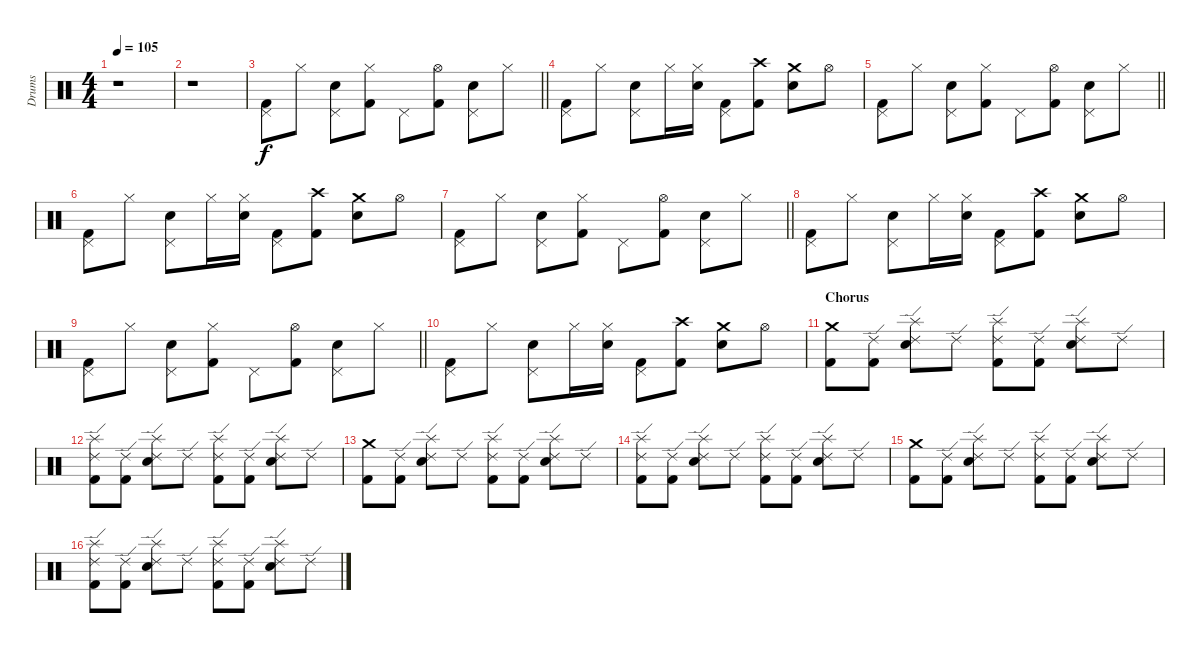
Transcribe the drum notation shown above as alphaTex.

\track ("Drums" "Drums") {instrument percussion}
\staff {score}
\articulation defaults
\ts (4 4)
\tempo 105
\clef neutral
\ks c
r.1{dy f} |
r.1 |
\barLineRight lightlight
("Pedal Hi-Hat (hit)" "Kick (hit) 2").8 "Hi-Hat (closed)".8 ("Pedal Hi-Hat (hit)" "Electric Snare (hit)").8 ("Hi-Hat (closed)" "Kick (hit) 2").8 "Pedal Hi-Hat (hit)".8 ("Hi-Hat (open)" "Kick (hit) 2").8 ("Pedal Hi-Hat (hit)" "Electric Snare (hit)").8 "Hi-Hat (closed)".8 |
("Pedal Hi-Hat (hit)" "Kick (hit) 2").8 "Hi-Hat (closed)".8 ("Pedal Hi-Hat (hit)" "Electric Snare (hit)").8 "Hi-Hat (closed)".16 ("Hi-Hat (closed)" "Electric Snare (hit)").16 ("Pedal Hi-Hat (hit)" "Kick (hit) 2").8 ("Crash high (hit)" "Kick (hit) 2").8 ("Crash medium (hit)" "Electric Snare (hit)").8 "Hi-Hat (open)".8 |
\barLineRight lightlight
("Pedal Hi-Hat (hit)" "Kick (hit) 2").8 "Hi-Hat (closed)".8 ("Pedal Hi-Hat (hit)" "Electric Snare (hit)").8 ("Hi-Hat (closed)" "Kick (hit) 2").8 "Pedal Hi-Hat (hit)".8 ("Hi-Hat (open)" "Kick (hit) 2").8 ("Pedal Hi-Hat (hit)" "Electric Snare (hit)").8 "Hi-Hat (closed)".8 |
("Pedal Hi-Hat (hit)" "Kick (hit) 2").8 "Hi-Hat (closed)".8 ("Pedal Hi-Hat (hit)" "Electric Snare (hit)").8 "Hi-Hat (closed)".16 ("Hi-Hat (closed)" "Electric Snare (hit)").16 ("Pedal Hi-Hat (hit)" "Kick (hit) 2").8 ("Crash high (hit)" "Kick (hit) 2").8 ("Crash medium (hit)" "Electric Snare (hit)").8 "Hi-Hat (open)".8 |
\barLineRight lightlight
("Pedal Hi-Hat (hit)" "Kick (hit) 2").8 "Hi-Hat (closed)".8 ("Pedal Hi-Hat (hit)" "Electric Snare (hit)").8 ("Hi-Hat (closed)" "Kick (hit) 2").8 "Pedal Hi-Hat (hit)".8 ("Hi-Hat (open)" "Kick (hit) 2").8 ("Pedal Hi-Hat (hit)" "Electric Snare (hit)").8 "Hi-Hat (closed)".8 |
("Pedal Hi-Hat (hit)" "Kick (hit) 2").8 "Hi-Hat (closed)".8 ("Pedal Hi-Hat (hit)" "Electric Snare (hit)").8 "Hi-Hat (closed)".16 ("Hi-Hat (closed)" "Electric Snare (hit)").16 ("Pedal Hi-Hat (hit)" "Kick (hit) 2").8 ("Crash high (hit)" "Kick (hit) 2").8 ("Crash medium (hit)" "Electric Snare (hit)").8 "Hi-Hat (open)".8 |
\barLineRight lightlight
("Pedal Hi-Hat (hit)" "Kick (hit) 2").8 "Hi-Hat (closed)".8 ("Pedal Hi-Hat (hit)" "Electric Snare (hit)").8 ("Hi-Hat (closed)" "Kick (hit) 2").8 "Pedal Hi-Hat (hit)".8 ("Hi-Hat (open)" "Kick (hit) 2").8 ("Pedal Hi-Hat (hit)" "Electric Snare (hit)").8 "Hi-Hat (closed)".8 |
("Pedal Hi-Hat (hit)" "Kick (hit) 2").8 "Hi-Hat (closed)".8 ("Pedal Hi-Hat (hit)" "Electric Snare (hit)").8 "Hi-Hat (closed)".16 ("Hi-Hat (closed)" "Electric Snare (hit)").16 ("Pedal Hi-Hat (hit)" "Kick (hit) 2").8 ("Crash high (hit)" "Kick (hit) 2").8 ("Crash medium (hit)" "Electric Snare (hit)").8 "Hi-Hat (open)".8 |
\section ("" "Chorus")
("Crash medium (hit)" "Kick (hit) 2").8 ("Ride (edge) 2" "Kick (hit) 2").8 ("Ride (edge) 2" "Splash (hit)" "Electric Snare (hit)").8 "Ride (edge) 2".8 ("Ride (edge) 2" "Splash (hit)" "Kick (hit) 2").8 ("Ride (edge) 2" "Kick (hit) 2").8 ("Ride (edge) 2" "Splash (hit)" "Electric Snare (hit)").8 "Ride (edge) 2".8 |
("Ride (edge) 2" "Splash (hit)" "Kick (hit) 2").8 ("Ride (edge) 2" "Kick (hit) 2").8 ("Ride (edge) 2" "Splash (hit)" "Electric Snare (hit)").8 "Ride (edge) 2".8 ("Ride (edge) 2" "Splash (hit)" "Kick (hit) 2").8 ("Ride (edge) 2" "Kick (hit) 2").8 ("Ride (edge) 2" "Splash (hit)" "Electric Snare (hit)").8 "Ride (edge) 2".8 |
("Crash medium (hit)" "Kick (hit) 2").8 ("Ride (edge) 2" "Kick (hit) 2").8 ("Ride (edge) 2" "Splash (hit)" "Electric Snare (hit)").8 "Ride (edge) 2".8 ("Ride (edge) 2" "Splash (hit)" "Kick (hit) 2").8 ("Ride (edge) 2" "Kick (hit) 2").8 ("Ride (edge) 2" "Splash (hit)" "Electric Snare (hit)").8 "Ride (edge) 2".8 |
("Ride (edge) 2" "Splash (hit)" "Kick (hit) 2").8 ("Ride (edge) 2" "Kick (hit) 2").8 ("Ride (edge) 2" "Splash (hit)" "Electric Snare (hit)").8 "Ride (edge) 2".8 ("Ride (edge) 2" "Splash (hit)" "Kick (hit) 2").8 ("Ride (edge) 2" "Kick (hit) 2").8 ("Ride (edge) 2" "Splash (hit)" "Electric Snare (hit)").8 "Ride (edge) 2".8 |
("Crash medium (hit)" "Kick (hit) 2").8 ("Ride (edge) 2" "Kick (hit) 2").8 ("Ride (edge) 2" "Splash (hit)" "Electric Snare (hit)").8 "Ride (edge) 2".8 ("Ride (edge) 2" "Splash (hit)" "Kick (hit) 2").8 ("Ride (edge) 2" "Kick (hit) 2").8 ("Ride (edge) 2" "Splash (hit)" "Electric Snare (hit)").8 "Ride (edge) 2".8 |
("Ride (edge) 2" "Splash (hit)" "Kick (hit) 2").8 ("Ride (edge) 2" "Kick (hit) 2").8 ("Ride (edge) 2" "Splash (hit)" "Electric Snare (hit)").8 "Ride (edge) 2".8 ("Ride (edge) 2" "Splash (hit)" "Kick (hit) 2").8 ("Ride (edge) 2" "Kick (hit) 2").8 ("Ride (edge) 2" "Splash (hit)" "Electric Snare (hit)").8 "Ride (edge) 2".8
